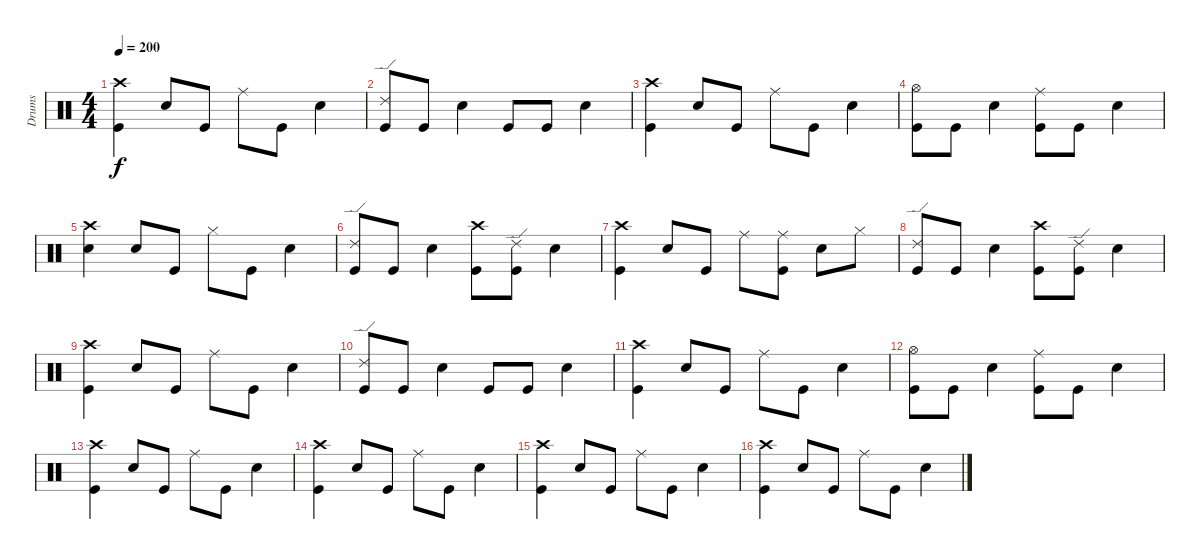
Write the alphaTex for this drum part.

\track ("Drums" "Drums") {instrument percussion}
\staff {score}
\articulation defaults
\ts (4 4)
\tempo 200
\clef neutral
\ks c
("Crash high (hit)" "Kick (hit)").4{dy f} "Snare (hit) 2".8 "Kick (hit)".8 "Ride (middle)".8 "Kick (hit)".8 "Snare (hit) 2".4 |
("Ride (edge) 2" "Kick (hit)").8 "Kick (hit)".8 "Snare (hit) 2".4 "Kick (hit)".8 "Kick (hit)".8 "Snare (hit) 2".4 |
("Crash high (hit)" "Kick (hit)").4 "Snare (hit) 2".8 "Kick (hit)".8 "Ride (middle)".8 "Kick (hit)".8 "Snare (hit) 2".4 |
("Hi-Hat (open)" "Kick (hit)").8 "Kick (hit)".8 "Snare (hit) 2".4 ("Ride (middle)" "Kick (hit)").8 "Kick (hit)".8 "Snare (hit) 2".4 |
("Crash high (hit)" "Snare (hit) 2").4 "Snare (hit) 2".8 "Kick (hit)".8 "Hi-Hat (closed)".8 "Kick (hit)".8 "Snare (hit) 2".4 |
("Ride (edge) 2" "Kick (hit)").8 "Kick (hit)".8 "Snare (hit) 2".4 ("Crash high (hit)" "Kick (hit)").8 ("Ride (edge) 2" "Kick (hit)").8 "Snare (hit) 2".4 |
("Crash high (hit)" "Kick (hit)").4 "Snare (hit) 2".8 "Kick (hit)".8 "Ride (middle)".8 ("Ride (middle)" "Kick (hit)").8 "Snare (hit) 2".8 "Hi-Hat (closed)".8 |
("Ride (edge) 2" "Kick (hit)").8 "Kick (hit)".8 "Snare (hit) 2".4 ("Crash high (hit)" "Kick (hit)").8 ("Ride (edge) 2" "Kick (hit)").8 "Snare (hit) 2".4 |
("Crash high (hit)" "Kick (hit)").4 "Snare (hit) 2".8 "Kick (hit)".8 "Ride (middle)".8 "Kick (hit)".8 "Snare (hit) 2".4 |
("Ride (edge) 2" "Kick (hit)").8 "Kick (hit)".8 "Snare (hit) 2".4 "Kick (hit)".8 "Kick (hit)".8 "Snare (hit) 2".4 |
("Crash high (hit)" "Kick (hit)").4 "Snare (hit) 2".8 "Kick (hit)".8 "Ride (middle)".8 "Kick (hit)".8 "Snare (hit) 2".4 |
("Hi-Hat (open)" "Kick (hit)").8 "Kick (hit)".8 "Snare (hit) 2".4 ("Ride (middle)" "Kick (hit)").8 "Kick (hit)".8 "Snare (hit) 2".4 |
("Crash high (hit)" "Kick (hit)").4 "Snare (hit) 2".8 "Kick (hit)".8 "Ride (middle)".8 "Kick (hit)".8 "Snare (hit) 2".4 |
("Crash high (hit)" "Kick (hit)").4 "Snare (hit) 2".8 "Kick (hit)".8 "Ride (middle)".8 "Kick (hit)".8 "Snare (hit) 2".4 |
("Crash high (hit)" "Kick (hit)").4 "Snare (hit) 2".8 "Kick (hit)".8 "Ride (middle)".8 "Kick (hit)".8 "Snare (hit) 2".4 |
("Crash high (hit)" "Kick (hit)").4 "Snare (hit) 2".8 "Kick (hit)".8 "Ride (middle)".8 "Kick (hit)".8 "Snare (hit) 2".4
